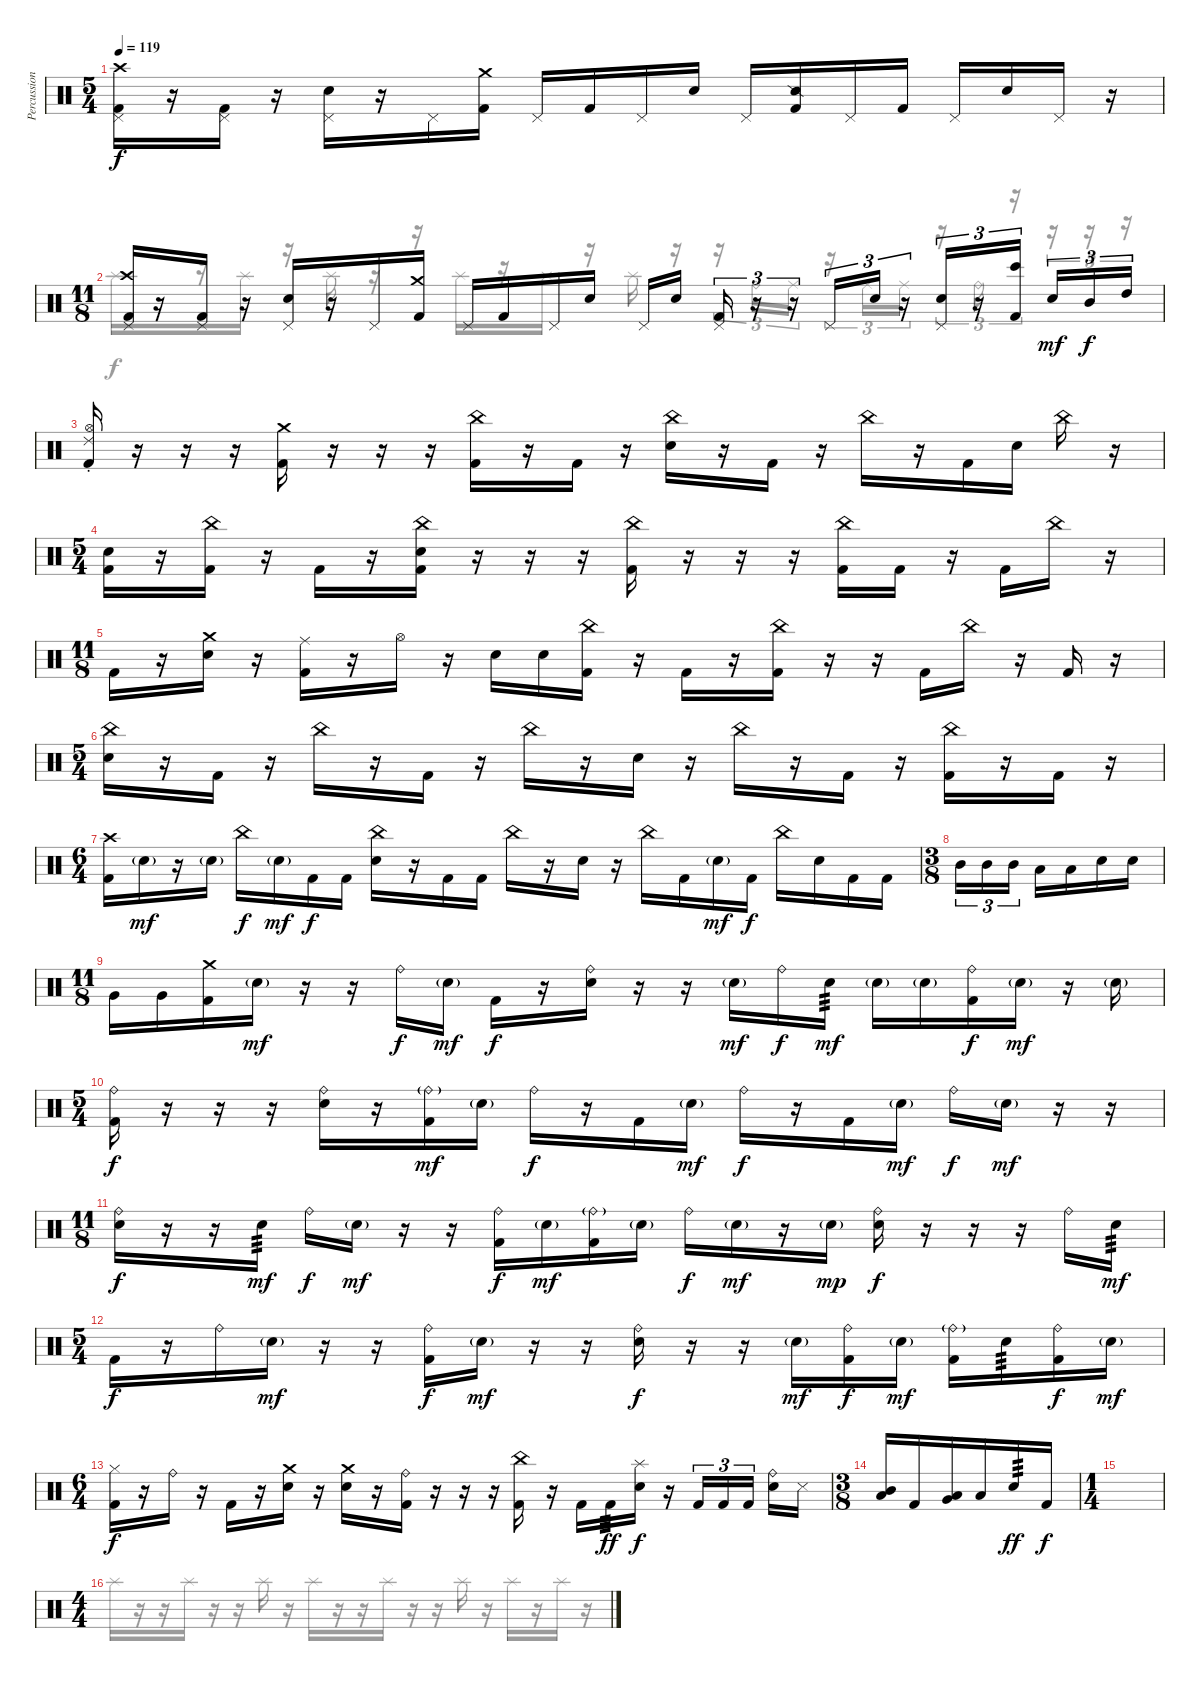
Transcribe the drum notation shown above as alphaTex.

\track ("Percussion" "Percussion") {instrument percussion}
\staff {score}
\articulation defaults
\voice
\ts (5 4)
\tempo 119
\clef neutral
\ks c
("Crash high (hit)" "Pedal Hi-Hat (hit)" "Kick (hit) 2").16{dy f} r.16 ("Pedal Hi-Hat (hit)" "Kick (hit) 2").16 r.16 ("Pedal Hi-Hat (hit)" "Snare (hit) 2").16 r.16 "Pedal Hi-Hat (hit)".16 ("Crash medium (hit)" "Kick (hit) 2").16 "Pedal Hi-Hat (hit)".16 "Kick (hit) 2".16 "Pedal Hi-Hat (hit)".16 "Snare (hit) 2".16 "Pedal Hi-Hat (hit)".16 ("Snare (side stick) 2" "Kick (hit) 2").16 "Pedal Hi-Hat (hit)".16 "Kick (hit) 2".16 "Pedal Hi-Hat (hit)".16 "Snare (hit) 2".16 "Pedal Hi-Hat (hit)".16 r.16 |
\ts (11 8)
("Crash high (hit)" "Pedal Hi-Hat (hit)" "Kick (hit) 2").16 r.16 ("Pedal Hi-Hat (hit)" "Kick (hit) 2").16 r.16 ("Pedal Hi-Hat (hit)" "Snare (hit) 2").16 r.16 "Pedal Hi-Hat (hit)".16 ("Crash medium (hit)" "Kick (hit) 2").16 "Pedal Hi-Hat (hit)".16 "Kick (hit) 2".16 "Pedal Hi-Hat (hit)".16 "Snare (hit) 2".16 "Pedal Hi-Hat (hit)".16 "Snare (hit)".16 ("Pedal Hi-Hat (hit)" "Kick (hit) 2").16{tu (3 2)} r.16{tu (3 2)} r.16{tu (3 2)} "Pedal Hi-Hat (hit)".16{tu (3 2)} "Snare (hit) 2".16{tu (3 2)} r.16{tu (3 2)} ("Pedal Hi-Hat (hit)" "Snare (hit) 2").16{tu (3 2)} r.16{tu (3 2)} ("Bongo High (hit)" "Kick (hit) 2").16{tu (3 2)} "Snare (hit) 2".16{tu (3 2) dy mf} "Mid Tom (hit)".16{tu (3 2) dy f} "High Tom (hit)".16{tu (3 2)} |
("Hi-Hat (open)" "Ride (choke) 2" "Kick (hit) 2").16 r.16 r.16 r.16 ("Crash medium (hit)" "Kick (hit) 2").16 r.16 r.16 r.16 ("China (hit)" "Kick (hit) 2").16 r.16 "Kick (hit) 2".16 r.16 ("China (hit)" "Snare (hit) 2").16 r.16 "Kick (hit) 2".16 r.16 "China (hit)".16 r.16 "Kick (hit) 2".16 "Snare (hit) 2".16 "China (hit)".16 r.16 |
\ts (5 4)
("Snare (hit) 2" "Kick (hit) 2").16 r.16 ("China (hit)" "Kick (hit) 2").16 r.16 "Kick (hit) 2".16 r.16 ("China (hit)" "Snare (hit) 2" "Kick (hit) 2").16 r.16 r.16 r.16 ("China (hit)" "Kick (hit) 2").16 r.16 r.16 r.16 ("China (hit)" "Kick (hit) 2").16 "Kick (hit) 2".16 r.16 "Kick (hit) 2".16 "China (hit)".16 r.16 |
\ts (11 8)
"Kick (hit) 2".16 r.16 ("Crash medium (hit)" "Snare (hit) 2").16 r.16 ("Ride (middle)" "Kick (hit) 2").16 r.16 "Hi-Hat (open)".16 r.16 "Snare (hit) 2".16 "Snare (hit) 2".16 ("China (hit)" "Kick (hit) 2").16 r.16 "Kick (hit) 2".16 r.16 ("China (hit)" "Kick (hit) 2").16 r.16 r.16 "Kick (hit) 2".16 "China (hit)".16 r.16 "Kick (hit) 2".16 r.16 |
\ts (5 4)
("China (hit)" "Snare (hit) 2").16 r.16 "Kick (hit) 2".16 r.16 "China (hit)".16 r.16 "Kick (hit) 2".16 r.16 "China (hit)".16 r.16 "Snare (hit) 2".16 r.16 "China (hit)".16 r.16 "Kick (hit) 2".16 r.16 ("China (hit)" "Kick (hit) 2").16 r.16 "Kick (hit) 2".16 r.16 |
\ts (6 4)
("Crash high (hit)" "Kick (hit) 2").16 "Snare (hit) 2"{g}.16{dy mf} r.16 "Snare (hit) 2"{g}.16 "China (hit)".16{dy f} "Snare (hit) 2"{g}.16{dy mf} "Kick (hit) 2".16{dy f} "Kick (hit) 2".16 ("China (hit)" "Snare (hit) 2").16 r.16 "Kick (hit) 2".16 "Kick (hit) 2".16 "China (hit)".16 r.16 "Snare (hit) 2".16 r.16 "China (hit)".16 "Kick (hit) 2".16 "Snare (hit) 2"{g}.16{dy mf} "Kick (hit) 2".16{dy f} "China (hit)".16 "Snare (hit) 2".16 "Kick (hit) 2".16 "Kick (hit) 2".16 |
\ts (3 8)
"Mid Tom (hit)".16{tu (3 2)} "Mid Tom (hit)".16{tu (3 2)} "Mid Tom (hit)".16{tu (3 2)} "Low Tom (hit)".16 "Low Tom (hit)".16 "Snare (hit) 2".16 "Snare (hit) 2".16 |
\ts (11 8)
"Very Low Tom (hit)".16 "Very Low Tom (hit)".16 ("Crash medium (hit)" "Kick (hit) 2").16 "Snare (hit) 2"{g}.16{dy mf} r.16 r.16 "Ride (bell)".16{dy f} "Snare (hit) 2"{g}.16{dy mf} "Kick (hit) 2".16{dy f} r.16 ("Ride (bell)" "Snare (hit) 2").16 r.16 r.16 "Snare (hit) 2"{g}.16{dy mf} "Ride (bell)".16{dy f} "Snare (hit) 2".16{tp 3 dy mf} "Snare (hit) 2"{g}.16 "Snare (hit) 2"{g}.16 ("Ride (bell)" "Kick (hit) 2").16{dy f} "Snare (hit) 2"{g}.16{dy mf} r.16 "Snare (hit) 2"{g}.16 |
\ts (5 4)
("Ride (bell)" "Kick (hit) 2").16{dy f} r.16 r.16 r.16 ("Ride (bell)" "Snare (hit) 2").16 r.16 ("Ride (bell)"{g} "Kick (hit) 2").16{dy mf} "Snare (hit) 2"{g}.16 "Ride (bell)".16{dy f} r.16 "Kick (hit) 2".16 "Snare (hit) 2"{g}.16{dy mf} "Ride (bell)".16{dy f} r.16 "Kick (hit) 2".16 "Snare (hit) 2"{g}.16{dy mf} "Ride (bell)".16{dy f} "Snare (hit) 2"{g}.16{dy mf} r.16 r.16 |
\ts (11 8)
("Ride (bell)" "Snare (hit) 2").16{dy f} r.16 r.16 "Snare (hit) 2".16{tp 3 dy mf} "Ride (bell)".16{dy f} "Snare (hit) 2"{g}.16{dy mf} r.16 r.16 ("Ride (bell)" "Kick (hit) 2").16{dy f} "Snare (hit) 2"{g}.16{dy mf} ("Ride (bell)"{g} "Kick (hit) 2").16 "Snare (hit) 2"{g}.16 "Ride (bell)".16{dy f} "Snare (hit) 2"{g}.16{dy mf} r.16 "Snare (hit) 2"{g}.16{dy mp} ("Ride (bell)" "Snare (hit) 2").16{dy f} r.16 r.16 r.16 "Ride (bell)".16 "Snare (hit) 2".16{tp 3 dy mf} |
\ts (5 4)
"Kick (hit) 2".16{dy f} r.16 "Ride (bell)".16 "Snare (hit) 2"{g}.16{dy mf} r.16 r.16 ("Ride (bell)" "Kick (hit) 2").16{dy f} "Snare (hit) 2"{g}.16{dy mf} r.16 r.16 ("Ride (bell)" "Snare (hit) 2").16{dy f} r.16 r.16 "Snare (hit) 2"{g}.16{dy mf} ("Ride (bell)" "Kick (hit) 2").16{dy f} "Snare (hit) 2"{g}.16{dy mf} ("Ride (bell)"{g} "Kick (hit) 2").16 "Snare (hit) 2".16{tp 3} ("Ride (bell)" "Kick (hit) 2").16{dy f} "Snare (hit) 2"{g}.16{dy mf} |
\ts (6 4)
("Hi-Hat (closed)" "Kick (hit) 2").16{dy f} r.16 "Ride (bell)".16 r.16 "Kick (hit) 2".16 r.16 ("Crash medium (hit)" "Snare (hit) 2").16 r.16 ("Crash medium (hit)" "Snare (hit) 2").16 r.16 ("Ride (bell)" "Kick (hit) 2").16 r.16 r.16 r.16 ("China (hit)" "Kick (hit) 2").16 r.16 "Kick (hit) 2".16 "Kick (hit) 2".16{tp 3 dy ff} ("Splash (hit)" "Snare (hit) 2").16{dy f} r.16 "Kick (hit) 2".16{tu (3 2)} "Kick (hit) 2".16{tu (3 2)} "Kick (hit) 2".16{tu (3 2) beam splitsecondary} ("Ride (bell)" "Snare (hit) 2").16 "Metronome (hit)".16 |
\ts (3 8)
("Mid Tom (hit)" "Low Tom (hit)").16{bu 60} "Kick (hit) 2".16 ("Low Tom (hit)" "Very Low Tom (hit)").16{bu 60} "Low Tom (hit)".16 "Snare (hit) 2".16{tp 3 dy ff} "Kick (hit) 2".16{dy f} |
\ts (1 4)
|
\ts (4 4)
\voice
\clef neutral
\ottava regular
\simile none
\ks c "Splash (hit)".16{dy f}
r.16 r.16 "Splash (hit)".16 r.16 r.16 "Splash (hit)".16 r.16 "Splash (hit)".16 r.16 r.16 "Splash (hit)".16 r.16 r.16 "Splash (hit)".16 r.16 "Splash (hit)".16 r.16 "Splash (hit)".16 r.16 |
"Splash (hit)".16 r.16 r.16 "Splash (hit)".16 r.16 "Splash (hit)".16 r.16 r.16 "Splash (hit)".16 r.16 "Splash (hit)".16 r.16 "Splash (hit)".16 r.16 r.16{tu (3 2)} "Ride (bell)".16{tu (3 2)} "Ride (middle)".16{tu (3 2)} r.16{tu (3 2)} "Ride (middle)".16{tu (3 2)} "Ride (middle)".16{tu (3 2)} r.16{tu (3 2)} "Ride (bell)".16{tu (3 2)} r.16{tu (3 2)} r.16{tu (3 2)} r.16{tu (3 2)} r.16{tu (3 2)} |
|
|
|
|
|
|
|
|
|
|
|
|
|
